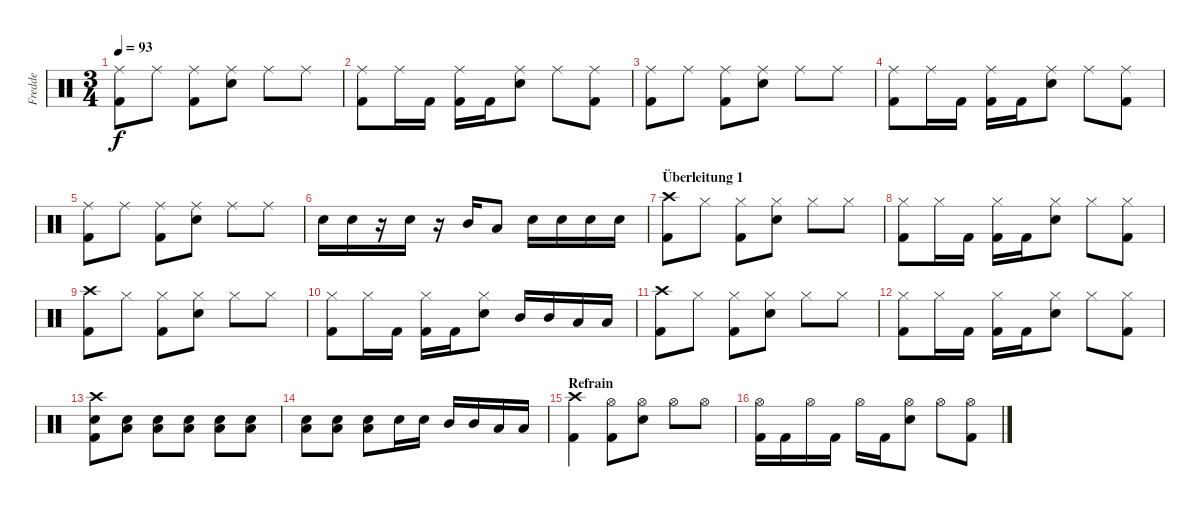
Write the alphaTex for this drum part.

\track ("Fredde" "Fredde") {instrument percussion}
\staff {score}
\articulation defaults
\ts (3 4)
\tempo 93
\clef neutral
\ks c
("Ride (middle)" "Kick (hit) 2").8{dy f} "Ride (middle)".8 ("Ride (middle)" "Kick (hit) 2").8 ("Ride (middle)" "Snare (hit) 2").8 "Ride (middle)".8 "Ride (middle)".8 |
("Ride (middle)" "Kick (hit) 2").8 "Ride (middle)".16 "Kick (hit) 2".16 ("Ride (middle)" "Kick (hit) 2").16 "Kick (hit) 2".16 ("Ride (middle)" "Snare (hit) 2").8 "Ride (middle)".8 ("Ride (middle)" "Kick (hit) 2").8 |
("Ride (middle)" "Kick (hit) 2").8 "Ride (middle)".8 ("Ride (middle)" "Kick (hit) 2").8 ("Ride (middle)" "Snare (hit) 2").8 "Ride (middle)".8 "Ride (middle)".8 |
("Ride (middle)" "Kick (hit) 2").8 "Ride (middle)".16 "Kick (hit) 2".16 ("Ride (middle)" "Kick (hit) 2").16 "Kick (hit) 2".16 ("Ride (middle)" "Snare (hit) 2").8 "Ride (middle)".8 ("Ride (middle)" "Kick (hit) 2").8 |
("Ride (middle)" "Kick (hit) 2").8 "Ride (middle)".8 ("Ride (middle)" "Kick (hit) 2").8 ("Ride (middle)" "Snare (hit) 2").8 "Ride (middle)".8 "Ride (middle)".8 |
"Snare (hit) 2".16 "Snare (hit) 2".16 r.16 "Snare (hit) 2".16 r.16 "Mid Tom (hit)".16 "Low Tom (hit)".8 "Snare (hit) 2".16 "Snare (hit) 2".16 "Snare (hit) 2".16 "Snare (hit) 2".16 |
\section ("" "Überleitung 1")
("Crash high (hit)" "Kick (hit) 2").8 "Hi-Hat (closed)".8 ("Hi-Hat (closed)" "Kick (hit) 2").8 ("Hi-Hat (closed)" "Snare (hit) 2").8 "Hi-Hat (closed)".8 "Hi-Hat (closed)".8 |
("Hi-Hat (closed)" "Kick (hit) 2").8 "Hi-Hat (closed)".16 "Kick (hit) 2".16 ("Hi-Hat (closed)" "Kick (hit) 2").16 "Kick (hit) 2".16 ("Hi-Hat (closed)" "Snare (hit) 2").8 "Hi-Hat (closed)".8 ("Hi-Hat (closed)" "Kick (hit) 2").8 |
("Crash high (hit)" "Kick (hit) 2").8 "Hi-Hat (closed)".8 ("Hi-Hat (closed)" "Kick (hit) 2").8 ("Hi-Hat (closed)" "Snare (hit) 2").8 "Hi-Hat (closed)".8 "Hi-Hat (closed)".8 |
("Hi-Hat (closed)" "Kick (hit) 2").8 "Hi-Hat (closed)".16 "Kick (hit) 2".16 ("Hi-Hat (closed)" "Kick (hit) 2").16 "Kick (hit) 2".16 ("Hi-Hat (closed)" "Snare (hit) 2").8 "Mid Tom (hit)".16 "Mid Tom (hit)".16 "Low Tom (hit)".16 "Low Tom (hit)".16 |
("Crash high (hit)" "Kick (hit) 2").8 "Hi-Hat (closed)".8 ("Hi-Hat (closed)" "Kick (hit) 2").8 ("Hi-Hat (closed)" "Snare (hit) 2").8 "Hi-Hat (closed)".8 "Hi-Hat (closed)".8 |
("Hi-Hat (closed)" "Kick (hit) 2").8 "Hi-Hat (closed)".16 "Kick (hit) 2".16 ("Hi-Hat (closed)" "Kick (hit) 2").16 "Kick (hit) 2".16 ("Hi-Hat (closed)" "Snare (hit) 2").8 "Hi-Hat (closed)".8 ("Hi-Hat (closed)" "Kick (hit) 2").8 |
("Crash high (hit)" "Snare (hit) 2" "Kick (hit) 2").8 ("Low Floor Tom (hit)" "Snare (hit) 2").8 ("Low Floor Tom (hit)" "Snare (hit) 2").8 ("Low Floor Tom (hit)" "Snare (hit) 2").8 ("Low Floor Tom (hit)" "Snare (hit) 2").8 ("Low Floor Tom (hit)" "Snare (hit) 2").8 |
("Low Floor Tom (hit)" "Snare (hit) 2").8 ("Low Floor Tom (hit)" "Snare (hit) 2").8 ("Low Floor Tom (hit)" "Snare (hit) 2").8 "Snare (hit) 2".16 "Snare (hit) 2".16 "Mid Tom (hit)".16 "Mid Tom (hit)".16 "Low Tom (hit)".16 "Low Tom (hit)".16 |
\section ("" "Refrain")
("Crash high (hit)" "Kick (hit) 2").4 ("Hi-Hat (open)" "Kick (hit) 2").8 ("Hi-Hat (open)" "Snare (hit) 2").8 "Hi-Hat (open)".8 "Hi-Hat (open)".8 |
("Hi-Hat (open)" "Kick (hit) 2").16 "Kick (hit) 2".16 "Hi-Hat (open)".16 "Kick (hit) 2".16 "Hi-Hat (open)".16 "Kick (hit) 2".16 ("Hi-Hat (open)" "Snare (hit) 2").8 "Hi-Hat (open)".8 ("Hi-Hat (open)" "Kick (hit) 2").8
